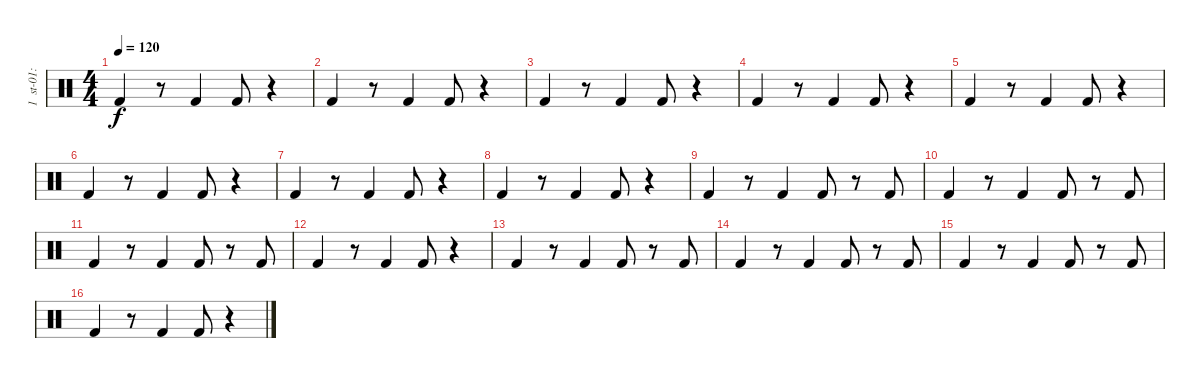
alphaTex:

\track (" 1  st-01:bassdrum2" " 1  st-01:") {instrument percussion}
\staff {score}
\articulation defaults
\ts (4 4)
\tempo 120
\clef neutral
\ks c "Kick (hit) 2".4{dy f}
r.8 "Kick (hit) 2".4 "Kick (hit) 2".8 r.4 |
"Kick (hit) 2".4 r.8 "Kick (hit) 2".4 "Kick (hit) 2".8 r.4 |
"Kick (hit) 2".4 r.8 "Kick (hit) 2".4 "Kick (hit) 2".8 r.4 |
"Kick (hit) 2".4 r.8 "Kick (hit) 2".4 "Kick (hit) 2".8 r.4 |
"Kick (hit) 2".4 r.8 "Kick (hit) 2".4 "Kick (hit) 2".8 r.4 |
"Kick (hit) 2".4 r.8 "Kick (hit) 2".4 "Kick (hit) 2".8 r.4 |
"Kick (hit) 2".4 r.8 "Kick (hit) 2".4 "Kick (hit) 2".8 r.4 |
"Kick (hit) 2".4 r.8 "Kick (hit) 2".4 "Kick (hit) 2".8 r.4 |
"Kick (hit) 2".4 r.8 "Kick (hit) 2".4 "Kick (hit) 2".8 r.8 "Kick (hit) 2".8 |
"Kick (hit) 2".4 r.8 "Kick (hit) 2".4 "Kick (hit) 2".8 r.8 "Kick (hit) 2".8 |
"Kick (hit) 2".4 r.8 "Kick (hit) 2".4 "Kick (hit) 2".8 r.8 "Kick (hit) 2".8 |
"Kick (hit) 2".4 r.8 "Kick (hit) 2".4 "Kick (hit) 2".8 r.4 |
"Kick (hit) 2".4 r.8 "Kick (hit) 2".4 "Kick (hit) 2".8 r.8 "Kick (hit) 2".8 |
"Kick (hit) 2".4 r.8 "Kick (hit) 2".4 "Kick (hit) 2".8 r.8 "Kick (hit) 2".8 |
"Kick (hit) 2".4 r.8 "Kick (hit) 2".4 "Kick (hit) 2".8 r.8 "Kick (hit) 2".8 |
"Kick (hit) 2".4 r.8 "Kick (hit) 2".4 "Kick (hit) 2".8 r.4
